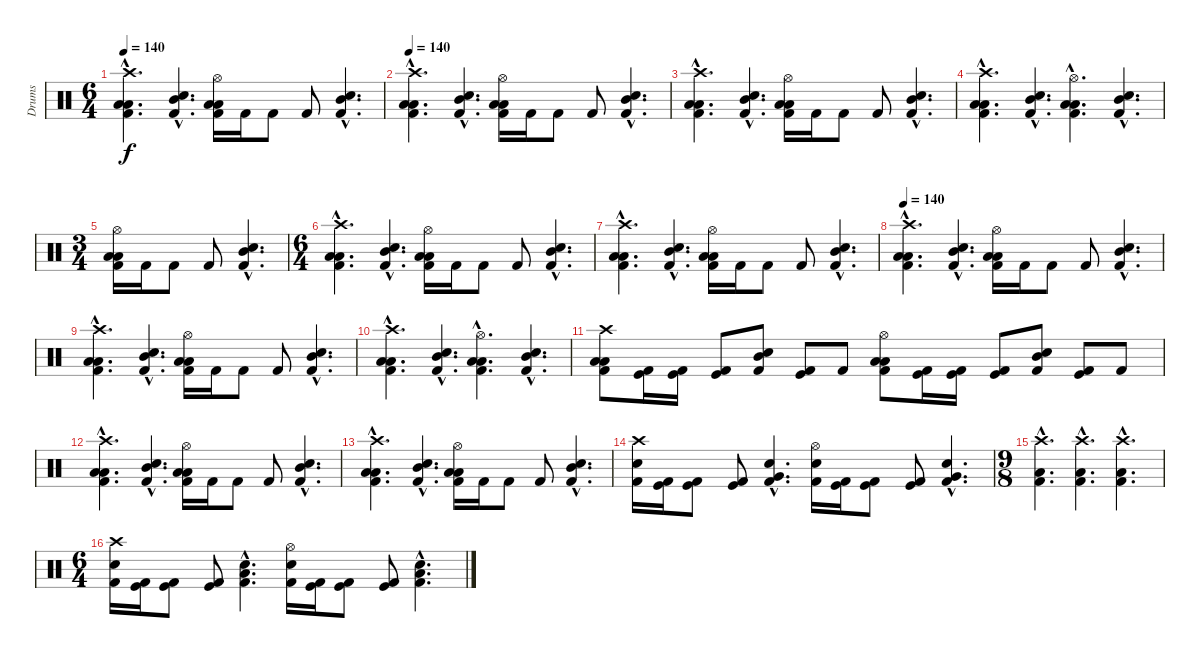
\track ("Drums" "Drums") {instrument percussion}
\staff {score}
\articulation defaults
\ts (6 4)
\tempo 140
\clef neutral
\ks c
("Crash high (hit)"{hac} "Low Tom (hit)"{hac} "Low Tom (hit)"{hac} "Kick (hit) 2"{hac}).4{d dy f} ("Snare (hit) 2"{hac} "Mid Tom (hit)"{hac} "Kick (hit) 2"{hac}).4{d} ("Hi-Hat (open)" "Low Tom (hit)" "Low Tom (hit)" "Kick (hit) 2").16 "Kick (hit) 2".16 "Kick (hit) 2".8 "Kick (hit) 2".8 ("Snare (hit) 2"{hac} "Mid Tom (hit)"{hac} "Kick (hit) 2"{hac}).4{d} |
\tempo 140
("Crash high (hit)"{hac} "Low Tom (hit)"{hac} "Low Tom (hit)"{hac} "Kick (hit) 2"{hac}).4{d} ("Snare (hit) 2"{hac} "Mid Tom (hit)"{hac} "Kick (hit) 2"{hac}).4{d} ("Hi-Hat (open)" "Low Tom (hit)" "Low Tom (hit)" "Kick (hit) 2").16 "Kick (hit) 2".16 "Kick (hit) 2".8 "Kick (hit) 2".8 ("Snare (hit) 2"{hac} "Mid Tom (hit)"{hac} "Kick (hit) 2"{hac}).4{d} |
("Crash high (hit)"{hac} "Low Tom (hit)"{hac} "Low Tom (hit)"{hac} "Kick (hit) 2"{hac}).4{d} ("Snare (hit) 2"{hac} "Mid Tom (hit)"{hac} "Kick (hit) 2"{hac}).4{d} ("Hi-Hat (open)" "Low Tom (hit)" "Low Tom (hit)" "Kick (hit) 2").16 "Kick (hit) 2".16 "Kick (hit) 2".8 "Kick (hit) 2".8 ("Snare (hit) 2"{hac} "Mid Tom (hit)"{hac} "Kick (hit) 2"{hac}).4{d} |
("Crash high (hit)"{hac} "Low Tom (hit)"{hac} "Low Tom (hit)"{hac} "Kick (hit) 2"{hac}).4{d} ("Snare (hit) 2"{hac} "Mid Tom (hit)"{hac} "Kick (hit) 2"{hac}).4{d} ("Hi-Hat (open)"{hac} "Low Tom (hit)"{hac} "Low Tom (hit)"{hac} "Kick (hit) 2"{hac}).4{d} ("Snare (hit) 2"{hac} "Mid Tom (hit)"{hac} "Kick (hit) 2"{hac}).4{d} |
\ts (3 4)
("Hi-Hat (open)" "Low Tom (hit)" "Low Tom (hit)" "Kick (hit) 2").16 "Kick (hit) 2".16 "Kick (hit) 2".8 "Kick (hit) 2".8 ("Snare (hit) 2"{hac} "Mid Tom (hit)"{hac} "Kick (hit) 2"{hac}).4{d} |
\ts (6 4)
("Crash high (hit)"{hac} "Low Tom (hit)"{hac} "Low Tom (hit)"{hac} "Kick (hit) 2"{hac}).4{d} ("Snare (hit) 2"{hac} "Mid Tom (hit)"{hac} "Kick (hit) 2"{hac}).4{d} ("Hi-Hat (open)" "Low Tom (hit)" "Low Tom (hit)" "Kick (hit) 2").16 "Kick (hit) 2".16 "Kick (hit) 2".8 "Kick (hit) 2".8 ("Snare (hit) 2"{hac} "Mid Tom (hit)"{hac} "Kick (hit) 2"{hac}).4{d} |
("Crash high (hit)"{hac} "Low Tom (hit)"{hac} "Low Tom (hit)"{hac} "Kick (hit) 2"{hac}).4{d} ("Snare (hit) 2"{hac} "Mid Tom (hit)"{hac} "Kick (hit) 2"{hac}).4{d} ("Hi-Hat (open)" "Low Tom (hit)" "Low Tom (hit)" "Kick (hit) 2").16 "Kick (hit) 2".16 "Kick (hit) 2".8 "Kick (hit) 2".8 ("Snare (hit) 2"{hac} "Mid Tom (hit)"{hac} "Kick (hit) 2"{hac}).4{d} |
\tempo 140
("Crash high (hit)"{hac} "Low Tom (hit)"{hac} "Low Tom (hit)"{hac} "Kick (hit) 2"{hac}).4{d} ("Snare (hit) 2"{hac} "Mid Tom (hit)"{hac} "Kick (hit) 2"{hac}).4{d} ("Hi-Hat (open)" "Low Tom (hit)" "Low Tom (hit)" "Kick (hit) 2").16 "Kick (hit) 2".16 "Kick (hit) 2".8 "Kick (hit) 2".8 ("Snare (hit) 2"{hac} "Mid Tom (hit)"{hac} "Kick (hit) 2"{hac}).4{d} |
("Crash high (hit)"{hac} "Low Tom (hit)"{hac} "Low Tom (hit)"{hac} "Kick (hit) 2"{hac}).4{d} ("Snare (hit) 2"{hac} "Mid Tom (hit)"{hac} "Kick (hit) 2"{hac}).4{d} ("Hi-Hat (open)" "Low Tom (hit)" "Low Tom (hit)" "Kick (hit) 2").16 "Kick (hit) 2".16 "Kick (hit) 2".8 "Kick (hit) 2".8 ("Snare (hit) 2"{hac} "Mid Tom (hit)"{hac} "Kick (hit) 2"{hac}).4{d} |
("Crash high (hit)"{hac} "Low Tom (hit)"{hac} "Low Tom (hit)"{hac} "Kick (hit) 2"{hac}).4{d} ("Snare (hit) 2"{hac} "Mid Tom (hit)"{hac} "Kick (hit) 2"{hac}).4{d} ("Hi-Hat (open)"{hac} "Low Tom (hit)"{hac} "Low Tom (hit)"{hac} "Kick (hit) 2"{hac}).4{d} ("Snare (hit) 2"{hac} "Mid Tom (hit)"{hac} "Kick (hit) 2"{hac}).4{d} |
("Crash high (hit)" "Low Tom (hit)" "Low Tom (hit)" "Kick (hit) 2").8 ("Kick (hit)" "Kick (hit) 2").16 ("Kick (hit)" "Kick (hit) 2").16 ("Kick (hit)" "Kick (hit) 2").8 ("Mid Tom (hit)" "Snare (hit) 2" "Kick (hit) 2").8 ("Kick (hit)" "Kick (hit) 2").8 "Kick (hit) 2".8 ("Hi-Hat (open)" "Low Tom (hit)" "Low Tom (hit)" "Kick (hit) 2").8 ("Kick (hit)" "Kick (hit) 2").16 ("Kick (hit)" "Kick (hit) 2").16 ("Kick (hit)" "Kick (hit) 2").8 ("Mid Tom (hit)" "Snare (hit) 2" "Kick (hit) 2").8 ("Kick (hit)" "Kick (hit) 2").8 "Kick (hit) 2".8 |
("Crash high (hit)"{hac} "Low Tom (hit)"{hac} "Low Tom (hit)"{hac} "Kick (hit) 2"{hac}).4{d} ("Snare (hit) 2"{hac} "Mid Tom (hit)"{hac} "Kick (hit) 2"{hac}).4{d} ("Hi-Hat (open)" "Low Tom (hit)" "Low Tom (hit)" "Kick (hit) 2").16 "Kick (hit) 2".16 "Kick (hit) 2".8 "Kick (hit) 2".8 ("Snare (hit) 2"{hac} "Mid Tom (hit)"{hac} "Kick (hit) 2"{hac}).4{d} |
("Crash high (hit)"{hac} "Low Tom (hit)"{hac} "Low Tom (hit)"{hac} "Kick (hit) 2"{hac}).4{d} ("Snare (hit) 2"{hac} "Mid Tom (hit)"{hac} "Kick (hit) 2"{hac}).4{d} ("Hi-Hat (open)" "Low Tom (hit)" "Low Tom (hit)" "Kick (hit) 2").16 "Kick (hit) 2".16 "Kick (hit) 2".8 "Kick (hit) 2".8 ("Snare (hit) 2"{hac} "Mid Tom (hit)"{hac} "Kick (hit) 2"{hac}).4{d} |
("Crash high (hit)" "Snare (hit) 2" "Kick (hit) 2").16 ("Kick (hit)" "Kick (hit) 2").16 ("Kick (hit)" "Kick (hit) 2").8 ("Kick (hit)" "Kick (hit) 2").8 ("Very Low Tom (hit)"{hac} "Electric Snare (hit)"{hac} "Kick (hit) 2"{hac}).4{d} ("Hi-Hat (open)" "Snare (hit) 2" "Kick (hit) 2").16 ("Kick (hit)" "Kick (hit) 2").16 ("Kick (hit)" "Kick (hit) 2").8 ("Kick (hit)" "Kick (hit) 2").8 ("Very Low Tom (hit)"{hac} "Electric Snare (hit)"{hac} "Kick (hit) 2"{hac}).4{d} |
\ts (9 8)
("Crash high (hit)"{hac} "Low Tom (hit)"{hac} "Kick (hit) 2"{hac}).4{d} ("Crash high (hit)"{hac} "Low Tom (hit)"{hac} "Kick (hit) 2"{hac}).4{d} ("Crash high (hit)"{hac} "Low Tom (hit)"{hac} "Kick (hit) 2"{hac}).4{d} |
\ts (6 4)
("Crash high (hit)" "Snare (hit) 2" "Kick (hit) 2").16 ("Kick (hit)" "Kick (hit) 2").16 ("Kick (hit)" "Kick (hit) 2").8 ("Kick (hit)" "Kick (hit) 2").8 ("Low Tom (hit)"{hac} "Electric Snare (hit)"{hac} "Kick (hit) 2"{hac}).4{d} ("Hi-Hat (open)" "Snare (hit) 2" "Kick (hit) 2").16 ("Kick (hit)" "Kick (hit) 2").16 ("Kick (hit)" "Kick (hit) 2").8 ("Kick (hit)" "Kick (hit) 2").8 ("Low Tom (hit)"{hac} "Electric Snare (hit)"{hac} "Kick (hit) 2"{hac}).4{d}
